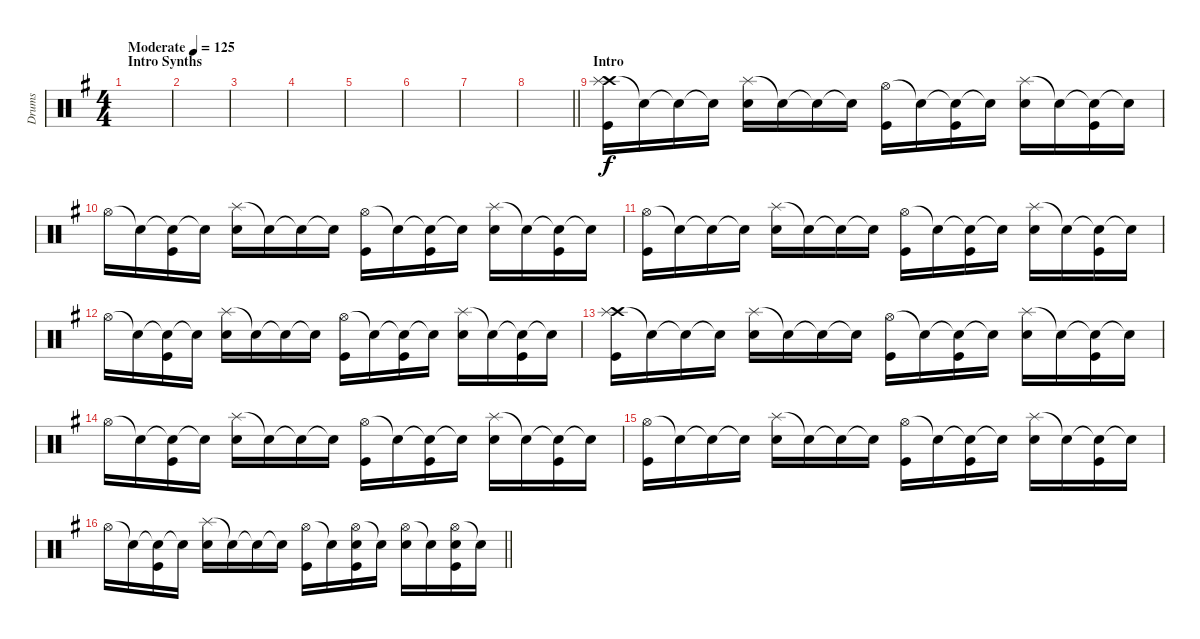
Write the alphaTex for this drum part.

\track ("Drums" "Drums") {instrument percussion}
\staff {score}
\articulation defaults
\ts (4 4)
\section ("" "Intro Synths")
\tempo (125 "Moderate")
\clef neutral
\ks g
|
|
|
|
|
|
|
\barLineRight lightlight
|
\section ("" "Intro")
("Crash high (hit)" "Splash (hit)" "Kick (hit)").16 "Snare (hit)"{t}.16 "Snare (hit)"{t}.16 "Snare (hit)"{t}.16 ("Splash (hit)" "Electric Snare (hit)").16 "Snare (hit)"{t}.16 "Snare (hit)"{t}.16 "Snare (hit)"{t}.16 ("Hi-Hat (open)" "Kick (hit)").16 "Snare (hit)"{t}.16 ("Snare (hit)"{t} "Kick (hit)").16 "Snare (hit)"{t}.16 ("Splash (hit)" "Electric Snare (hit)").16 "Snare (hit)"{t}.16 ("Snare (hit)"{t} "Kick (hit)").16 "Snare (hit)"{t}.16 |
"Hi-Hat (open)".16 "Snare (hit)"{t}.16 ("Snare (hit)"{t} "Kick (hit)").16 "Snare (hit)"{t}.16 ("Splash (hit)" "Electric Snare (hit)").16 "Snare (hit)"{t}.16 "Snare (hit)"{t}.16 "Snare (hit)"{t}.16 ("Hi-Hat (open)" "Kick (hit)").16 "Snare (hit)"{t}.16 ("Snare (hit)"{t} "Kick (hit)").16 "Snare (hit)"{t}.16 ("Splash (hit)" "Electric Snare (hit)").16 "Snare (hit)"{t}.16 ("Snare (hit)"{t} "Kick (hit)").16 "Snare (hit)"{t}.16 |
("Hi-Hat (open)" "Kick (hit)").16 "Snare (hit)"{t}.16 "Snare (hit)"{t}.16 "Snare (hit)"{t}.16 ("Splash (hit)" "Electric Snare (hit)").16 "Snare (hit)"{t}.16 "Snare (hit)"{t}.16 "Snare (hit)"{t}.16 ("Hi-Hat (open)" "Kick (hit)").16 "Snare (hit)"{t}.16 ("Snare (hit)"{t} "Kick (hit)").16 "Snare (hit)"{t}.16 ("Splash (hit)" "Electric Snare (hit)").16 "Snare (hit)"{t}.16 ("Snare (hit)"{t} "Kick (hit)").16 "Snare (hit)"{t}.16 |
"Hi-Hat (open)".16 "Snare (hit)"{t}.16 ("Snare (hit)"{t} "Kick (hit)").16 "Snare (hit)"{t}.16 ("Splash (hit)" "Electric Snare (hit)").16 "Snare (hit)"{t}.16 "Snare (hit)"{t}.16 "Snare (hit)"{t}.16 ("Hi-Hat (open)" "Kick (hit)").16 "Snare (hit)"{t}.16 ("Snare (hit)"{t} "Kick (hit)").16 "Snare (hit)"{t}.16 ("Splash (hit)" "Electric Snare (hit)").16 "Snare (hit)"{t}.16 ("Snare (hit)"{t} "Kick (hit)").16 "Snare (hit)"{t}.16 |
("Crash high (hit)" "Splash (hit)" "Kick (hit)").16 "Snare (hit)"{t}.16 "Snare (hit)"{t}.16 "Snare (hit)"{t}.16 ("Splash (hit)" "Electric Snare (hit)").16 "Snare (hit)"{t}.16 "Snare (hit)"{t}.16 "Snare (hit)"{t}.16 ("Hi-Hat (open)" "Kick (hit)").16 "Snare (hit)"{t}.16 ("Snare (hit)"{t} "Kick (hit)").16 "Snare (hit)"{t}.16 ("Splash (hit)" "Electric Snare (hit)").16 "Snare (hit)"{t}.16 ("Snare (hit)"{t} "Kick (hit)").16 "Snare (hit)"{t}.16 |
"Hi-Hat (open)".16 "Snare (hit)"{t}.16 ("Snare (hit)"{t} "Kick (hit)").16 "Snare (hit)"{t}.16 ("Splash (hit)" "Electric Snare (hit)").16 "Snare (hit)"{t}.16 "Snare (hit)"{t}.16 "Snare (hit)"{t}.16 ("Hi-Hat (open)" "Kick (hit)").16 "Snare (hit)"{t}.16 ("Snare (hit)"{t} "Kick (hit)").16 "Snare (hit)"{t}.16 ("Splash (hit)" "Electric Snare (hit)").16 "Snare (hit)"{t}.16 ("Snare (hit)"{t} "Kick (hit)").16 "Snare (hit)"{t}.16 |
("Hi-Hat (open)" "Kick (hit)").16 "Snare (hit)"{t}.16 "Snare (hit)"{t}.16 "Snare (hit)"{t}.16 ("Splash (hit)" "Electric Snare (hit)").16 "Snare (hit)"{t}.16 "Snare (hit)"{t}.16 "Snare (hit)"{t}.16 ("Hi-Hat (open)" "Kick (hit)").16 "Snare (hit)"{t}.16 ("Snare (hit)"{t} "Kick (hit)").16 "Snare (hit)"{t}.16 ("Splash (hit)" "Electric Snare (hit)").16 "Snare (hit)"{t}.16 ("Snare (hit)"{t} "Kick (hit)").16 "Snare (hit)"{t}.16 |
\barLineRight lightlight "Hi-Hat (open)".16 "Snare (hit)"{t}.16
("Snare (hit)"{t} "Kick (hit)").16 "Snare (hit)"{t}.16 ("Splash (hit)" "Electric Snare (hit)").16 "Snare (hit)"{t}.16 "Snare (hit)"{t}.16 "Snare (hit)"{t}.16 ("Hi-Hat (open)" "Kick (hit)").16 "Snare (hit)"{t}.16 ("Hi-Hat (open)" "Electric Snare (hit)" "Kick (hit)").16 "Snare (hit)"{t}.16 ("Hi-Hat (open)" "Electric Snare (hit)").16 "Snare (hit)"{t}.16 ("Hi-Hat (open)" "Electric Snare (hit)" "Kick (hit)").16 "Snare (hit)"{t}.16
